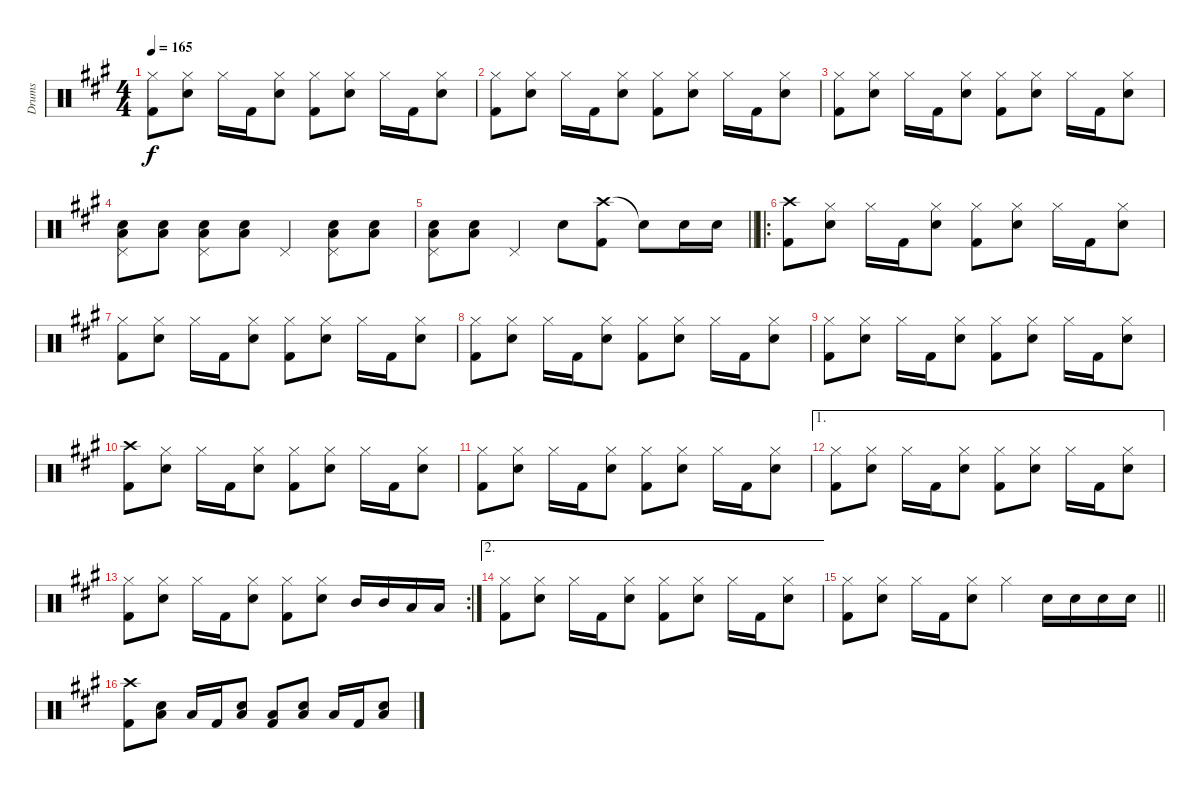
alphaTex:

\track ("Drums" "Drums") {instrument percussion}
\staff {score}
\articulation defaults
\ts (4 4)
\tempo 165
\clef neutral
\ks a
("Hi-Hat (closed)" "Kick (hit) 2").8{dy f} ("Hi-Hat (closed)" "Snare (hit) 2").8 "Hi-Hat (closed)".16 "Kick (hit) 2".16 ("Hi-Hat (closed)" "Snare (hit) 2").8 ("Hi-Hat (closed)" "Kick (hit) 2").8 ("Hi-Hat (closed)" "Snare (hit) 2").8 "Hi-Hat (closed)".16 "Kick (hit) 2".16 ("Hi-Hat (closed)" "Snare (hit) 2").8 |
("Hi-Hat (closed)" "Kick (hit) 2").8 ("Hi-Hat (closed)" "Snare (hit) 2").8 "Hi-Hat (closed)".16 "Kick (hit) 2".16 ("Hi-Hat (closed)" "Snare (hit) 2").8 ("Hi-Hat (closed)" "Kick (hit) 2").8 ("Hi-Hat (closed)" "Snare (hit) 2").8 "Hi-Hat (closed)".16 "Kick (hit) 2".16 ("Hi-Hat (closed)" "Snare (hit) 2").8 |
("Hi-Hat (closed)" "Kick (hit) 2").8 ("Hi-Hat (closed)" "Snare (hit) 2").8 "Hi-Hat (closed)".16 "Kick (hit) 2".16 ("Hi-Hat (closed)" "Snare (hit) 2").8 ("Hi-Hat (closed)" "Kick (hit) 2").8 ("Hi-Hat (closed)" "Snare (hit) 2").8 "Hi-Hat (closed)".16 "Kick (hit) 2".16 ("Hi-Hat (closed)" "Snare (hit) 2").8 |
("Pedal Hi-Hat (hit)" "Snare (hit) 2" "Low Floor Tom (hit)").8 ("Snare (hit) 2" "Low Floor Tom (hit)").8 ("Pedal Hi-Hat (hit)" "Snare (hit) 2" "Low Floor Tom (hit)").8 ("Snare (hit) 2" "Low Floor Tom (hit)").8 "Pedal Hi-Hat (hit)".4 ("Pedal Hi-Hat (hit)" "Snare (hit) 2" "Low Floor Tom (hit)").8 ("Snare (hit) 2" "Low Floor Tom (hit)").8 |
\barLineRight lightlight
("Pedal Hi-Hat (hit)" "Snare (hit) 2" "Low Floor Tom (hit)").8 ("Snare (hit) 2" "Low Floor Tom (hit)").8 "Pedal Hi-Hat (hit)".4 "Snare (hit) 2".8 ("Crash high (hit)" "Kick (hit) 2").8 "Snare (hit)"{t}.8 "Snare (hit) 2".16 "Snare (hit) 2".16 |
\ro
("Crash high (hit)" "Kick (hit) 2").8 ("Hi-Hat (closed)" "Snare (hit) 2").8 "Hi-Hat (closed)".16 "Kick (hit) 2".16 ("Hi-Hat (closed)" "Snare (hit) 2").8 ("Hi-Hat (closed)" "Kick (hit) 2").8 ("Hi-Hat (closed)" "Snare (hit) 2").8 "Hi-Hat (closed)".16 "Kick (hit) 2".16 ("Hi-Hat (closed)" "Snare (hit) 2").8 |
("Hi-Hat (closed)" "Kick (hit) 2").8 ("Hi-Hat (closed)" "Snare (hit) 2").8 "Hi-Hat (closed)".16 "Kick (hit) 2".16 ("Hi-Hat (closed)" "Snare (hit) 2").8 ("Hi-Hat (closed)" "Kick (hit) 2").8 ("Hi-Hat (closed)" "Snare (hit) 2").8 "Hi-Hat (closed)".16 "Kick (hit) 2".16 ("Hi-Hat (closed)" "Snare (hit) 2").8 |
("Hi-Hat (closed)" "Kick (hit) 2").8 ("Hi-Hat (closed)" "Snare (hit) 2").8 "Hi-Hat (closed)".16 "Kick (hit) 2".16 ("Hi-Hat (closed)" "Snare (hit) 2").8 ("Hi-Hat (closed)" "Kick (hit) 2").8 ("Hi-Hat (closed)" "Snare (hit) 2").8 "Hi-Hat (closed)".16 "Kick (hit) 2".16 ("Hi-Hat (closed)" "Snare (hit) 2").8 |
("Hi-Hat (closed)" "Kick (hit) 2").8 ("Hi-Hat (closed)" "Snare (hit) 2").8 "Hi-Hat (closed)".16 "Kick (hit) 2".16 ("Hi-Hat (closed)" "Snare (hit) 2").8 ("Hi-Hat (closed)" "Kick (hit) 2").8 ("Hi-Hat (closed)" "Snare (hit) 2").8 "Hi-Hat (closed)".16 "Kick (hit) 2".16 ("Hi-Hat (closed)" "Snare (hit) 2").8 |
("Crash high (hit)" "Kick (hit) 2").8 ("Hi-Hat (closed)" "Snare (hit) 2").8 "Hi-Hat (closed)".16 "Kick (hit) 2".16 ("Hi-Hat (closed)" "Snare (hit) 2").8 ("Hi-Hat (closed)" "Kick (hit) 2").8 ("Hi-Hat (closed)" "Snare (hit) 2").8 "Hi-Hat (closed)".16 "Kick (hit) 2".16 ("Hi-Hat (closed)" "Snare (hit) 2").8 |
("Hi-Hat (closed)" "Kick (hit) 2").8 ("Hi-Hat (closed)" "Snare (hit) 2").8 "Hi-Hat (closed)".16 "Kick (hit) 2".16 ("Hi-Hat (closed)" "Snare (hit) 2").8 ("Hi-Hat (closed)" "Kick (hit) 2").8 ("Hi-Hat (closed)" "Snare (hit) 2").8 "Hi-Hat (closed)".16 "Kick (hit) 2".16 ("Hi-Hat (closed)" "Snare (hit) 2").8 |
\ae 1
("Hi-Hat (closed)" "Kick (hit) 2").8 ("Hi-Hat (closed)" "Snare (hit) 2").8 "Hi-Hat (closed)".16 "Kick (hit) 2".16 ("Hi-Hat (closed)" "Snare (hit) 2").8 ("Hi-Hat (closed)" "Kick (hit) 2").8 ("Hi-Hat (closed)" "Snare (hit) 2").8 "Hi-Hat (closed)".16 "Kick (hit) 2".16 ("Hi-Hat (closed)" "Snare (hit) 2").8 |
\rc 2
("Hi-Hat (closed)" "Kick (hit) 2").8 ("Hi-Hat (closed)" "Snare (hit) 2").8 "Hi-Hat (closed)".16 "Kick (hit) 2".16 ("Hi-Hat (closed)" "Snare (hit) 2").8 ("Hi-Hat (closed)" "Kick (hit) 2").8 ("Hi-Hat (closed)" "Snare (hit) 2").8 "Mid Tom (hit)".16 "Mid Tom (hit)".16 "Low Tom (hit)".16 "Low Tom (hit)".16 |
\ae 2
("Hi-Hat (closed)" "Kick (hit) 2").8 ("Hi-Hat (closed)" "Snare (hit) 2").8 "Hi-Hat (closed)".16 "Kick (hit) 2".16 ("Hi-Hat (closed)" "Snare (hit) 2").8 ("Hi-Hat (closed)" "Kick (hit) 2").8 ("Hi-Hat (closed)" "Snare (hit) 2").8 "Hi-Hat (closed)".16 "Kick (hit) 2".16 ("Hi-Hat (closed)" "Snare (hit) 2").8 |
\barLineRight lightlight
("Hi-Hat (closed)" "Kick (hit) 2").8 ("Hi-Hat (closed)" "Snare (hit) 2").8 "Hi-Hat (closed)".16 "Kick (hit) 2".16 ("Hi-Hat (closed)" "Snare (hit) 2").8 "Hi-Hat (closed)".4 "Snare (hit) 2".16 "Snare (hit) 2".16 "Snare (hit) 2".16 "Snare (hit) 2".16 |
("Crash high (hit)" "Kick (hit) 2").8 ("Snare (hit) 2" "Low Floor Tom (hit)").8 "Low Floor Tom (hit)".16 "Kick (hit) 2".16 ("Snare (hit) 2" "Low Floor Tom (hit)").8 ("Low Floor Tom (hit)" "Kick (hit) 2").8 ("Snare (hit) 2" "Low Floor Tom (hit)").8 "Low Floor Tom (hit)".16 "Kick (hit) 2".16 ("Snare (hit) 2" "Low Floor Tom (hit)").8
